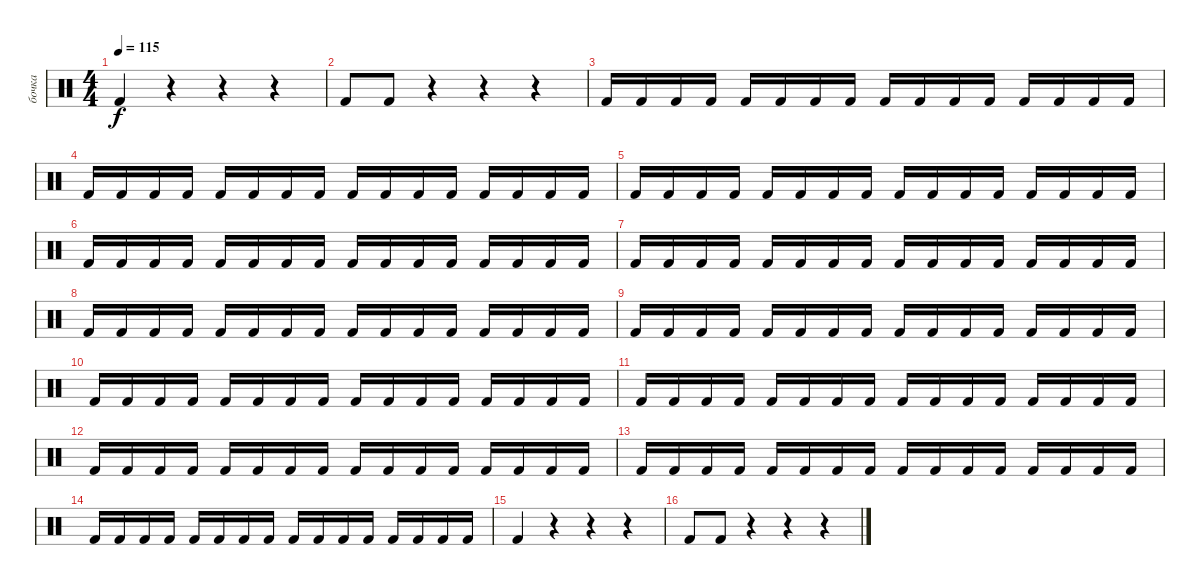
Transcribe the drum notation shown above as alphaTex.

\track ("бочка" "бочка") {mute instrument percussion}
\staff {score}
\articulation defaults
\ts (4 4)
\tempo 115
\clef neutral
\ks c "Kick (hit) 2".4{dy f}
r.4 r.4 r.4 |
"Kick (hit) 2".8 "Kick (hit) 2".8 r.4 r.4 r.4 |
"Kick (hit) 2".16 "Kick (hit) 2".16 "Kick (hit) 2".16 "Kick (hit) 2".16 "Kick (hit) 2".16 "Kick (hit) 2".16 "Kick (hit) 2".16 "Kick (hit) 2".16 "Kick (hit) 2".16 "Kick (hit) 2".16 "Kick (hit) 2".16 "Kick (hit) 2".16 "Kick (hit) 2".16 "Kick (hit) 2".16 "Kick (hit) 2".16 "Kick (hit) 2".16 |
"Kick (hit) 2".16 "Kick (hit) 2".16 "Kick (hit) 2".16 "Kick (hit) 2".16 "Kick (hit) 2".16 "Kick (hit) 2".16 "Kick (hit) 2".16 "Kick (hit) 2".16 "Kick (hit) 2".16 "Kick (hit) 2".16 "Kick (hit) 2".16 "Kick (hit) 2".16 "Kick (hit) 2".16 "Kick (hit) 2".16 "Kick (hit) 2".16 "Kick (hit) 2".16 |
"Kick (hit) 2".16 "Kick (hit) 2".16 "Kick (hit) 2".16 "Kick (hit) 2".16 "Kick (hit) 2".16 "Kick (hit) 2".16 "Kick (hit) 2".16 "Kick (hit) 2".16 "Kick (hit) 2".16 "Kick (hit) 2".16 "Kick (hit) 2".16 "Kick (hit) 2".16 "Kick (hit) 2".16 "Kick (hit) 2".16 "Kick (hit) 2".16 "Kick (hit) 2".16 |
"Kick (hit) 2".16 "Kick (hit) 2".16 "Kick (hit) 2".16 "Kick (hit) 2".16 "Kick (hit) 2".16 "Kick (hit) 2".16 "Kick (hit) 2".16 "Kick (hit) 2".16 "Kick (hit) 2".16 "Kick (hit) 2".16 "Kick (hit) 2".16 "Kick (hit) 2".16 "Kick (hit) 2".16 "Kick (hit) 2".16 "Kick (hit) 2".16 "Kick (hit) 2".16 |
"Kick (hit) 2".16 "Kick (hit) 2".16 "Kick (hit) 2".16 "Kick (hit) 2".16 "Kick (hit) 2".16 "Kick (hit) 2".16 "Kick (hit) 2".16 "Kick (hit) 2".16 "Kick (hit) 2".16 "Kick (hit) 2".16 "Kick (hit) 2".16 "Kick (hit) 2".16 "Kick (hit) 2".16 "Kick (hit) 2".16 "Kick (hit) 2".16 "Kick (hit) 2".16 |
"Kick (hit) 2".16 "Kick (hit) 2".16 "Kick (hit) 2".16 "Kick (hit) 2".16 "Kick (hit) 2".16 "Kick (hit) 2".16 "Kick (hit) 2".16 "Kick (hit) 2".16 "Kick (hit) 2".16 "Kick (hit) 2".16 "Kick (hit) 2".16 "Kick (hit) 2".16 "Kick (hit) 2".16 "Kick (hit) 2".16 "Kick (hit) 2".16 "Kick (hit) 2".16 |
"Kick (hit) 2".16 "Kick (hit) 2".16 "Kick (hit) 2".16 "Kick (hit) 2".16 "Kick (hit) 2".16 "Kick (hit) 2".16 "Kick (hit) 2".16 "Kick (hit) 2".16 "Kick (hit) 2".16 "Kick (hit) 2".16 "Kick (hit) 2".16 "Kick (hit) 2".16 "Kick (hit) 2".16 "Kick (hit) 2".16 "Kick (hit) 2".16 "Kick (hit) 2".16 |
"Kick (hit) 2".16 "Kick (hit) 2".16 "Kick (hit) 2".16 "Kick (hit) 2".16 "Kick (hit) 2".16 "Kick (hit) 2".16 "Kick (hit) 2".16 "Kick (hit) 2".16 "Kick (hit) 2".16 "Kick (hit) 2".16 "Kick (hit) 2".16 "Kick (hit) 2".16 "Kick (hit) 2".16 "Kick (hit) 2".16 "Kick (hit) 2".16 "Kick (hit) 2".16 |
"Kick (hit) 2".16 "Kick (hit) 2".16 "Kick (hit) 2".16 "Kick (hit) 2".16 "Kick (hit) 2".16 "Kick (hit) 2".16 "Kick (hit) 2".16 "Kick (hit) 2".16 "Kick (hit) 2".16 "Kick (hit) 2".16 "Kick (hit) 2".16 "Kick (hit) 2".16 "Kick (hit) 2".16 "Kick (hit) 2".16 "Kick (hit) 2".16 "Kick (hit) 2".16 |
"Kick (hit) 2".16 "Kick (hit) 2".16 "Kick (hit) 2".16 "Kick (hit) 2".16 "Kick (hit) 2".16 "Kick (hit) 2".16 "Kick (hit) 2".16 "Kick (hit) 2".16 "Kick (hit) 2".16 "Kick (hit) 2".16 "Kick (hit) 2".16 "Kick (hit) 2".16 "Kick (hit) 2".16 "Kick (hit) 2".16 "Kick (hit) 2".16 "Kick (hit) 2".16 |
"Kick (hit) 2".16 "Kick (hit) 2".16 "Kick (hit) 2".16 "Kick (hit) 2".16 "Kick (hit) 2".16 "Kick (hit) 2".16 "Kick (hit) 2".16 "Kick (hit) 2".16 "Kick (hit) 2".16 "Kick (hit) 2".16 "Kick (hit) 2".16 "Kick (hit) 2".16 "Kick (hit) 2".16 "Kick (hit) 2".16 "Kick (hit) 2".16 "Kick (hit) 2".16 |
"Kick (hit) 2".16 "Kick (hit) 2".16 "Kick (hit) 2".16 "Kick (hit) 2".16 "Kick (hit) 2".16 "Kick (hit) 2".16 "Kick (hit) 2".16 "Kick (hit) 2".16 "Kick (hit) 2".16 "Kick (hit) 2".16 "Kick (hit) 2".16 "Kick (hit) 2".16 "Kick (hit) 2".16 "Kick (hit) 2".16 "Kick (hit) 2".16 "Kick (hit) 2".16 |
"Kick (hit) 2".4 r.4 r.4 r.4 |
"Kick (hit) 2".8 "Kick (hit) 2".8 r.4 r.4 r.4
